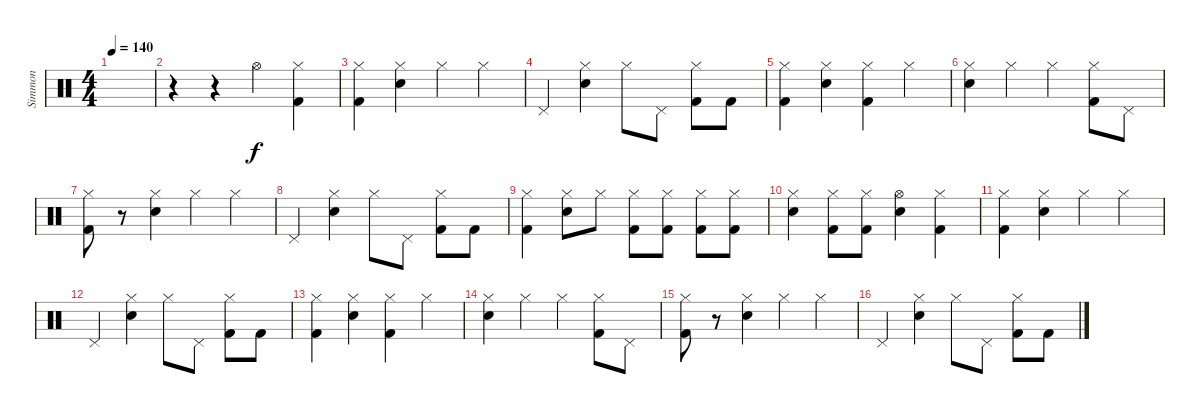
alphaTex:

\track ("Simmon" "Simmon") {instrument percussion}
\staff {score}
\articulation defaults
\ts (4 4)
\tempo 140
\clef neutral
\ks c
|
r.4 r.4 "Hi-Hat (open)".4 ("Kick (hit) 2" "Hi-Hat (closed)").4 |
("Kick (hit) 2" "Hi-Hat (closed)").4 ("Electric Snare (hit)" "Hi-Hat (closed)").4 "Hi-Hat (closed)".4 "Hi-Hat (closed)".4 |
"Pedal Hi-Hat (hit)".4 ("Electric Snare (hit)" "Hi-Hat (closed)").4 "Hi-Hat (closed)".8 "Pedal Hi-Hat (hit)".8 ("Kick (hit) 2" "Hi-Hat (closed)").8 "Kick (hit) 2".8 |
("Kick (hit) 2" "Hi-Hat (closed)").4 ("Electric Snare (hit)" "Hi-Hat (closed)").4 ("Kick (hit) 2" "Hi-Hat (closed)").4 "Hi-Hat (closed)".4 |
("Electric Snare (hit)" "Hi-Hat (closed)").4 "Hi-Hat (closed)".4 "Hi-Hat (closed)".4 ("Kick (hit) 2" "Hi-Hat (closed)").8 "Pedal Hi-Hat (hit)".8 |
("Kick (hit) 2" "Hi-Hat (closed)").8 r.8 ("Electric Snare (hit)" "Hi-Hat (closed)").4 "Hi-Hat (closed)".4 "Hi-Hat (closed)".4 |
"Pedal Hi-Hat (hit)".4 ("Electric Snare (hit)" "Hi-Hat (closed)").4 "Hi-Hat (closed)".8 "Pedal Hi-Hat (hit)".8 ("Kick (hit) 2" "Hi-Hat (closed)").8 "Kick (hit) 2".8 |
("Kick (hit) 2" "Hi-Hat (closed)").4 ("Electric Snare (hit)" "Hi-Hat (closed)").8 "Hi-Hat (closed)".8 ("Kick (hit) 2" "Hi-Hat (closed)").8 ("Kick (hit) 2" "Hi-Hat (closed)").8 ("Kick (hit) 2" "Hi-Hat (closed)").8 ("Kick (hit) 2" "Hi-Hat (closed)").8 |
("Electric Snare (hit)" "Hi-Hat (closed)").4 ("Kick (hit) 2" "Hi-Hat (closed)").8 ("Kick (hit) 2" "Hi-Hat (closed)").8 ("Electric Snare (hit)" "Hi-Hat (open)").4 ("Kick (hit) 2" "Hi-Hat (closed)").4 |
("Kick (hit) 2" "Hi-Hat (closed)").4 ("Electric Snare (hit)" "Hi-Hat (closed)").4 "Hi-Hat (closed)".4 "Hi-Hat (closed)".4 |
"Pedal Hi-Hat (hit)".4 ("Electric Snare (hit)" "Hi-Hat (closed)").4 "Hi-Hat (closed)".8 "Pedal Hi-Hat (hit)".8 ("Kick (hit) 2" "Hi-Hat (closed)").8 "Kick (hit) 2".8 |
("Kick (hit) 2" "Hi-Hat (closed)").4 ("Electric Snare (hit)" "Hi-Hat (closed)").4 ("Kick (hit) 2" "Hi-Hat (closed)").4 "Hi-Hat (closed)".4 |
("Electric Snare (hit)" "Hi-Hat (closed)").4 "Hi-Hat (closed)".4 "Hi-Hat (closed)".4 ("Kick (hit) 2" "Hi-Hat (closed)").8 "Pedal Hi-Hat (hit)".8 |
("Kick (hit) 2" "Hi-Hat (closed)").8 r.8 ("Electric Snare (hit)" "Hi-Hat (closed)").4 "Hi-Hat (closed)".4 "Hi-Hat (closed)".4 |
"Pedal Hi-Hat (hit)".4 ("Electric Snare (hit)" "Hi-Hat (closed)").4 "Hi-Hat (closed)".8 "Pedal Hi-Hat (hit)".8 ("Kick (hit) 2" "Hi-Hat (closed)").8 "Kick (hit) 2".8
